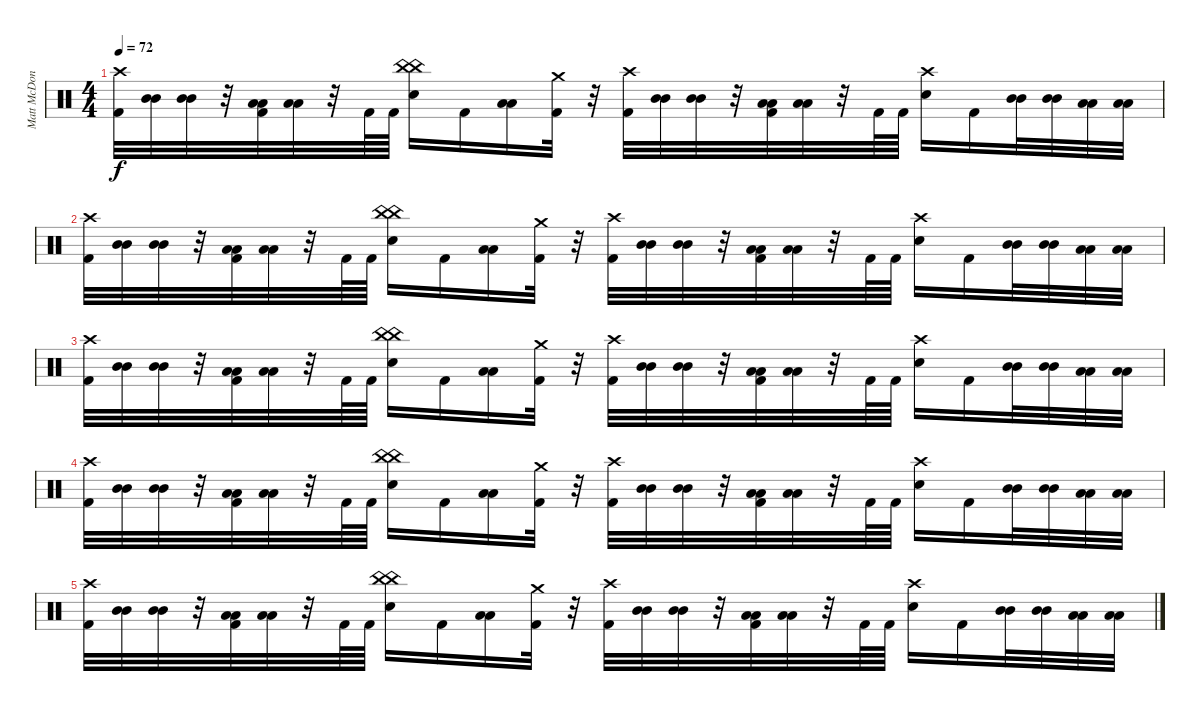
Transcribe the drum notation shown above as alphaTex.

\track ("Matt McDonough \"Spüg\" (Drums)" "Matt McDon") {instrument percussion}
\staff {score}
\articulation defaults
\ts (4 4)
\tempo 72
\clef neutral
\ks c
("Crash high (hit)" "Kick (hit) 2").32{dy f} ("Mid Tom (hit)" "Mid Tom (hit)").32 ("Mid Tom (hit)" "Mid Tom (hit)").32 r.32 ("Low Tom (hit)" "Low Tom (hit)" "Kick (hit) 2").32 ("Low Tom (hit)" "Low Tom (hit)").32 r.32 "Kick (hit) 2".64 "Kick (hit) 2".64 ("China (hit)" "China (hit)" "Electric Snare (hit)").16 "Kick (hit) 2".16 ("Low Tom (hit)" "Low Tom (hit)").16 ("Crash medium (hit)" "Kick (hit) 2").32 r.32 ("Crash high (hit)" "Kick (hit) 2").32 ("Mid Tom (hit)" "Mid Tom (hit)").32 ("Mid Tom (hit)" "Mid Tom (hit)").32 r.32 ("Low Tom (hit)" "Low Tom (hit)" "Kick (hit) 2").32 ("Low Tom (hit)" "Low Tom (hit)").32 r.32 "Kick (hit) 2".64 "Kick (hit) 2".64 ("Crash high (hit)" "Electric Snare (hit)").16 "Kick (hit) 2".16 ("Mid Tom (hit)" "Mid Tom (hit)").32 ("Mid Tom (hit)" "Mid Tom (hit)").32 ("Low Tom (hit)" "Low Tom (hit)").32 ("Low Tom (hit)" "Low Tom (hit)").32 |
("Crash high (hit)" "Kick (hit) 2").32{volume 7} ("Mid Tom (hit)" "Mid Tom (hit)").32 ("Mid Tom (hit)" "Mid Tom (hit)").32 r.32 ("Low Tom (hit)" "Low Tom (hit)" "Kick (hit) 2").32 ("Low Tom (hit)" "Low Tom (hit)").32 r.32 "Kick (hit) 2".64 "Kick (hit) 2".64 ("China (hit)" "China (hit)" "Electric Snare (hit)").16 "Kick (hit) 2".16 ("Low Tom (hit)" "Low Tom (hit)").16 ("Crash medium (hit)" "Kick (hit) 2").32 r.32 ("Crash high (hit)" "Kick (hit) 2").32 ("Mid Tom (hit)" "Mid Tom (hit)").32 ("Mid Tom (hit)" "Mid Tom (hit)").32 r.32 ("Low Tom (hit)" "Low Tom (hit)" "Kick (hit) 2").32 ("Low Tom (hit)" "Low Tom (hit)").32 r.32 "Kick (hit) 2".64 "Kick (hit) 2".64 ("Crash high (hit)" "Electric Snare (hit)").16 "Kick (hit) 2".16 ("Mid Tom (hit)" "Mid Tom (hit)").32 ("Mid Tom (hit)" "Mid Tom (hit)").32 ("Low Tom (hit)" "Low Tom (hit)").32 ("Low Tom (hit)" "Low Tom (hit)").32 |
("Crash high (hit)" "Kick (hit) 2").32 ("Mid Tom (hit)" "Mid Tom (hit)").32 ("Mid Tom (hit)" "Mid Tom (hit)").32 r.32 ("Low Tom (hit)" "Low Tom (hit)" "Kick (hit) 2").32 ("Low Tom (hit)" "Low Tom (hit)").32 r.32 "Kick (hit) 2".64 "Kick (hit) 2".64 ("China (hit)" "China (hit)" "Electric Snare (hit)").16 "Kick (hit) 2".16 ("Low Tom (hit)" "Low Tom (hit)").16 ("Crash medium (hit)" "Kick (hit) 2").32 r.32 ("Crash high (hit)" "Kick (hit) 2").32 ("Mid Tom (hit)" "Mid Tom (hit)").32 ("Mid Tom (hit)" "Mid Tom (hit)").32 r.32 ("Low Tom (hit)" "Low Tom (hit)" "Kick (hit) 2").32 ("Low Tom (hit)" "Low Tom (hit)").32 r.32 "Kick (hit) 2".64 "Kick (hit) 2".64 ("Crash high (hit)" "Electric Snare (hit)").16 "Kick (hit) 2".16 ("Mid Tom (hit)" "Mid Tom (hit)").32 ("Mid Tom (hit)" "Mid Tom (hit)").32 ("Low Tom (hit)" "Low Tom (hit)").32 ("Low Tom (hit)" "Low Tom (hit)").32 |
("Crash high (hit)" "Kick (hit) 2").32{volume 4} ("Mid Tom (hit)" "Mid Tom (hit)").32 ("Mid Tom (hit)" "Mid Tom (hit)").32 r.32 ("Low Tom (hit)" "Low Tom (hit)" "Kick (hit) 2").32 ("Low Tom (hit)" "Low Tom (hit)").32 r.32 "Kick (hit) 2".64 "Kick (hit) 2".64 ("China (hit)" "China (hit)" "Electric Snare (hit)").16 "Kick (hit) 2".16 ("Low Tom (hit)" "Low Tom (hit)").16 ("Crash medium (hit)" "Kick (hit) 2").32 r.32 ("Crash high (hit)" "Kick (hit) 2").32 ("Mid Tom (hit)" "Mid Tom (hit)").32 ("Mid Tom (hit)" "Mid Tom (hit)").32 r.32 ("Low Tom (hit)" "Low Tom (hit)" "Kick (hit) 2").32 ("Low Tom (hit)" "Low Tom (hit)").32 r.32 "Kick (hit) 2".64 "Kick (hit) 2".64 ("Crash high (hit)" "Electric Snare (hit)").16 "Kick (hit) 2".16 ("Mid Tom (hit)" "Mid Tom (hit)").32 ("Mid Tom (hit)" "Mid Tom (hit)").32 ("Low Tom (hit)" "Low Tom (hit)").32 ("Low Tom (hit)" "Low Tom (hit)").32 |
("Crash high (hit)" "Kick (hit) 2").32{volume 1} ("Mid Tom (hit)" "Mid Tom (hit)").32 ("Mid Tom (hit)" "Mid Tom (hit)").32 r.32 ("Low Tom (hit)" "Low Tom (hit)" "Kick (hit) 2").32 ("Low Tom (hit)" "Low Tom (hit)").32 r.32 "Kick (hit) 2".64 "Kick (hit) 2".64 ("China (hit)" "China (hit)" "Electric Snare (hit)").16 "Kick (hit) 2".16 ("Low Tom (hit)" "Low Tom (hit)").16 ("Crash medium (hit)" "Kick (hit) 2").32 r.32 ("Crash high (hit)" "Kick (hit) 2").32 ("Mid Tom (hit)" "Mid Tom (hit)").32 ("Mid Tom (hit)" "Mid Tom (hit)").32 r.32 ("Low Tom (hit)" "Low Tom (hit)" "Kick (hit) 2").32 ("Low Tom (hit)" "Low Tom (hit)").32 r.32 "Kick (hit) 2".64 "Kick (hit) 2".64 ("Crash high (hit)" "Electric Snare (hit)").16 "Kick (hit) 2".16 ("Mid Tom (hit)" "Mid Tom (hit)").32 ("Mid Tom (hit)" "Mid Tom (hit)").32 ("Low Tom (hit)" "Low Tom (hit)").32 ("Low Tom (hit)" "Low Tom (hit)").32
